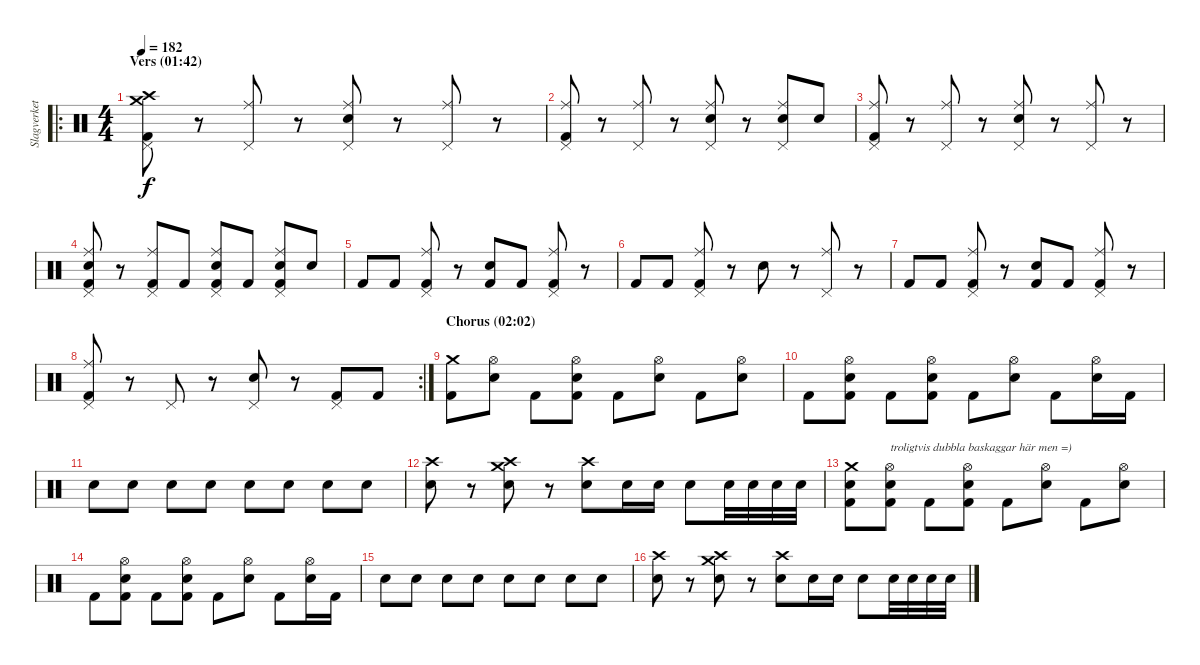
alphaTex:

\track ("Slagverket! =)" "Slagverket") {instrument percussion}
\staff {score}
\articulation defaults
\ro
\ts (4 4)
\section ("" "Vers (01:42)")
\tempo 182
\clef neutral
\ks c
("Crash medium (hit)" "Pedal Hi-Hat (hit)" "Crash high (hit)" "Kick (hit) 2").8{dy f} r.8 ("Ride (middle)" "Pedal Hi-Hat (hit)").8 r.8 ("Ride (middle)" "Pedal Hi-Hat (hit)" "Snare (hit) 2").8 r.8 ("Ride (middle)" "Pedal Hi-Hat (hit)").8 r.8 |
("Ride (middle)" "Pedal Hi-Hat (hit)" "Kick (hit) 2").8 r.8 ("Ride (middle)" "Pedal Hi-Hat (hit)").8 r.8 ("Ride (middle)" "Pedal Hi-Hat (hit)" "Snare (hit) 2").8 r.8 ("Ride (middle)" "Pedal Hi-Hat (hit)" "Snare (hit) 2").8 "Snare (hit) 2".8 |
("Ride (middle)" "Pedal Hi-Hat (hit)" "Kick (hit) 2").8 r.8 ("Ride (middle)" "Pedal Hi-Hat (hit)").8 r.8 ("Ride (middle)" "Pedal Hi-Hat (hit)" "Snare (hit) 2").8 r.8 ("Ride (middle)" "Pedal Hi-Hat (hit)").8 r.8 |
("Ride (middle)" "Pedal Hi-Hat (hit)" "Snare (hit) 2" "Kick (hit) 2").8 r.8 ("Ride (middle)" "Pedal Hi-Hat (hit)" "Kick (hit) 2").8 "Kick (hit) 2".8 ("Ride (middle)" "Pedal Hi-Hat (hit)" "Snare (hit) 2" "Kick (hit) 2").8 "Kick (hit) 2".8 ("Ride (middle)" "Pedal Hi-Hat (hit)" "Snare (hit) 2" "Kick (hit) 2").8 "Snare (hit) 2".8 |
"Kick (hit) 2".8 "Kick (hit) 2".8 ("Ride (middle)" "Pedal Hi-Hat (hit)" "Kick (hit) 2").8 r.8 ("Snare (hit) 2" "Kick (hit) 2").8 "Kick (hit) 2".8 ("Ride (middle)" "Pedal Hi-Hat (hit)" "Kick (hit) 2").8 r.8 |
"Kick (hit) 2".8 "Kick (hit) 2".8 ("Ride (middle)" "Pedal Hi-Hat (hit)" "Kick (hit) 2").8 r.8 "Snare (hit) 2".8 r.8 ("Ride (middle)" "Pedal Hi-Hat (hit)").8 r.8 |
"Kick (hit) 2".8 "Kick (hit) 2".8 ("Ride (middle)" "Pedal Hi-Hat (hit)" "Kick (hit) 2").8 r.8 ("Snare (hit) 2" "Kick (hit) 2").8 "Kick (hit) 2".8 ("Ride (middle)" "Pedal Hi-Hat (hit)" "Kick (hit) 2").8 r.8 |
\rc 2
("Ride (middle)" "Pedal Hi-Hat (hit)" "Kick (hit) 2").8 r.8 "Pedal Hi-Hat (hit)".8 r.8 ("Pedal Hi-Hat (hit)" "Snare (hit) 2").8 r.8 ("Pedal Hi-Hat (hit)" "Kick (hit) 2").8 "Kick (hit) 2".8 |
\section ("" "Chorus (02:02)")
("Crash medium (hit)" "Kick (hit) 2").8 ("Hi-Hat (open)" "Snare (hit) 2").8 "Kick (hit) 2".8 ("Hi-Hat (open)" "Snare (hit) 2" "Kick (hit) 2").8 "Kick (hit) 2".8 ("Hi-Hat (open)" "Snare (hit) 2").8 "Kick (hit) 2".8 ("Hi-Hat (open)" "Snare (hit) 2").8 |
"Kick (hit) 2".8 ("Hi-Hat (open)" "Snare (hit) 2" "Kick (hit) 2").8 "Kick (hit) 2".8 ("Hi-Hat (open)" "Snare (hit) 2" "Kick (hit) 2").8 "Kick (hit) 2".8 ("Hi-Hat (open)" "Snare (hit) 2").8 "Kick (hit) 2".8 ("Hi-Hat (open)" "Snare (hit) 2").16 "Kick (hit) 2".16 |
"Snare (hit) 2".8 "Snare (hit) 2".8 "Snare (hit) 2".8 "Snare (hit) 2".8 "Snare (hit) 2".8 "Snare (hit) 2".8 "Snare (hit) 2".8 "Snare (hit) 2".8 |
("Crash high (hit)" "Snare (hit) 2").8 r.8 ("Crash high (hit)" "Crash medium (hit)" "Snare (hit) 2").8 r.8 ("Crash high (hit)" "Snare (hit) 2").8 "Snare (hit) 2".16 "Snare (hit) 2".16 "Snare (hit) 2".8 "Snare (hit) 2".32 "Snare (hit) 2".32 "Snare (hit) 2".32 "Snare (hit) 2".32 |
("Crash medium (hit)" "Snare (hit) 2" "Kick (hit) 2").8 ("Hi-Hat (open)" "Snare (hit) 2" "Kick (hit) 2").8{txt "troligtvis dubbla baskaggar här men =)"} "Kick (hit) 2".8 ("Hi-Hat (open)" "Snare (hit) 2" "Kick (hit) 2").8 "Kick (hit) 2".8 ("Hi-Hat (open)" "Snare (hit) 2").8 "Kick (hit) 2".8 ("Hi-Hat (open)" "Snare (hit) 2").8 |
"Kick (hit) 2".8 ("Hi-Hat (open)" "Snare (hit) 2" "Kick (hit) 2").8 "Kick (hit) 2".8 ("Hi-Hat (open)" "Snare (hit) 2" "Kick (hit) 2").8 "Kick (hit) 2".8 ("Hi-Hat (open)" "Snare (hit) 2").8 "Kick (hit) 2".8 ("Hi-Hat (open)" "Snare (hit) 2").16 "Kick (hit) 2".16 |
"Snare (hit) 2".8 "Snare (hit) 2".8 "Snare (hit) 2".8 "Snare (hit) 2".8 "Snare (hit) 2".8 "Snare (hit) 2".8 "Snare (hit) 2".8 "Snare (hit) 2".8 |
("Crash high (hit)" "Snare (hit) 2").8 r.8 ("Crash high (hit)" "Crash medium (hit)" "Snare (hit) 2").8 r.8 ("Crash high (hit)" "Snare (hit) 2").8 "Snare (hit) 2".16 "Snare (hit) 2".16 "Snare (hit) 2".8 "Snare (hit) 2".32 "Snare (hit) 2".32 "Snare (hit) 2".32 "Snare (hit) 2".32
